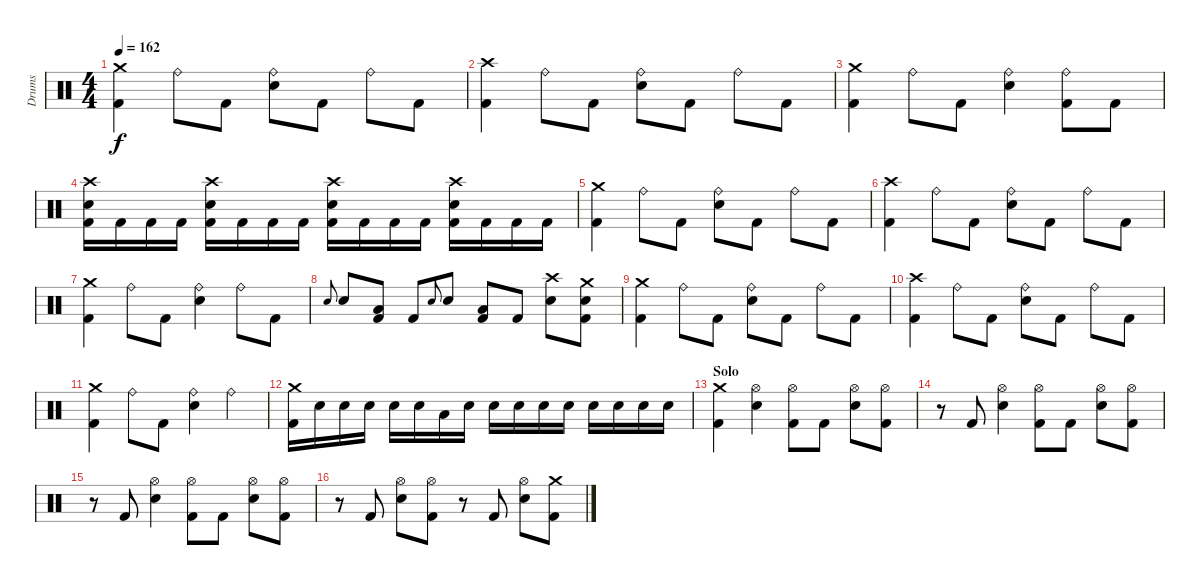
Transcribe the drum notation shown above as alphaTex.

\track ("Drums" "Drums") {instrument percussion}
\staff {score}
\articulation defaults
\ts (4 4)
\tempo 162
\clef neutral
\ks c
("Crash medium (hit)" "Kick (hit) 2").4{dy f} "Ride (bell)".8 "Kick (hit) 2".8 ("Ride (bell)" "Snare (hit) 2").8 "Kick (hit) 2".8 "Ride (bell)".8 "Kick (hit) 2".8 |
("Crash high (hit)" "Kick (hit) 2").4 "Ride (bell)".8 "Kick (hit) 2".8 ("Ride (bell)" "Snare (hit) 2").8 "Kick (hit) 2".8 "Ride (bell)".8 "Kick (hit) 2".8 |
("Crash medium (hit)" "Kick (hit) 2").4 "Ride (bell)".8 "Kick (hit) 2".8 ("Ride (bell)" "Snare (hit) 2").4 ("Ride (bell)" "Kick (hit) 2").8 "Kick (hit) 2".8 |
("Crash high (hit)" "Snare (hit) 2" "Kick (hit) 2").16 "Kick (hit) 2".16 "Kick (hit) 2".16 "Kick (hit) 2".16 ("Crash high (hit)" "Snare (hit) 2" "Kick (hit) 2").16 "Kick (hit) 2".16 "Kick (hit) 2".16 "Kick (hit) 2".16 ("Crash high (hit)" "Snare (hit) 2" "Kick (hit) 2").16 "Kick (hit) 2".16 "Kick (hit) 2".16 "Kick (hit) 2".16 ("Crash high (hit)" "Snare (hit) 2" "Kick (hit) 2").16 "Kick (hit) 2".16 "Kick (hit) 2".16 "Kick (hit) 2".16 |
("Crash medium (hit)" "Kick (hit) 2").4 "Ride (bell)".8 "Kick (hit) 2".8 ("Ride (bell)" "Snare (hit) 2").8 "Kick (hit) 2".8 "Ride (bell)".8 "Kick (hit) 2".8 |
("Crash high (hit)" "Kick (hit) 2").4 "Ride (bell)".8 "Kick (hit) 2".8 ("Ride (bell)" "Snare (hit) 2").8 "Kick (hit) 2".8 "Ride (bell)".8 "Kick (hit) 2".8 |
("Crash medium (hit)" "Kick (hit) 2").4 "Ride (bell)".8 "Kick (hit) 2".8 ("Ride (bell)" "Snare (hit) 2").4 "Ride (bell)".8 "Kick (hit) 2".8 |
"Snare (hit) 2".8{gr onbeat} "Snare (hit) 2".8 ("Low Floor Tom (hit)" "Kick (hit) 2").8 "Kick (hit) 2".8 "Snare (hit) 2".8{gr onbeat} "Snare (hit) 2".8 ("Low Floor Tom (hit)" "Kick (hit) 2").8 "Kick (hit) 2".8 ("Crash high (hit)" "Snare (hit) 2").8 ("Crash medium (hit)" "Snare (hit) 2" "Kick (hit) 2").8 |
("Crash medium (hit)" "Kick (hit) 2").4 "Ride (bell)".8 "Kick (hit) 2".8 ("Ride (bell)" "Snare (hit) 2").8 "Kick (hit) 2".8 "Ride (bell)".8 "Kick (hit) 2".8 |
("Crash high (hit)" "Kick (hit) 2").4 "Ride (bell)".8 "Kick (hit) 2".8 ("Ride (bell)" "Snare (hit) 2").8 "Kick (hit) 2".8 "Ride (bell)".8 "Kick (hit) 2".8 |
("Crash medium (hit)" "Kick (hit) 2").4 "Ride (bell)".8 "Kick (hit) 2".8 ("Ride (bell)" "Snare (hit) 2").4 "Ride (bell)".4 |
("Crash medium (hit)" "Kick (hit) 2").16 "Snare (hit) 2".16 "Snare (hit) 2".16 "Snare (hit) 2".16 "Snare (hit) 2".16 "Snare (hit) 2".16 "Low Tom (hit)".16 "Snare (hit) 2".16 "Snare (hit) 2".16 "Snare (hit) 2".16 "Snare (hit) 2".16 "Snare (hit) 2".16 "Snare (hit) 2".16 "Snare (hit) 2".16 "Snare (hit) 2".16 "Snare (hit) 2".16 |
\section ("" "Solo")
("Crash medium (hit)" "Kick (hit) 2").4 ("Hi-Hat (open)" "Snare (hit) 2").4 ("Hi-Hat (open)" "Kick (hit) 2").8 "Kick (hit) 2".8 ("Hi-Hat (open)" "Snare (hit) 2").8 ("Hi-Hat (open)" "Kick (hit) 2").8 |
r.8 "Kick (hit) 2".8 ("Hi-Hat (open)" "Snare (hit) 2").4 ("Hi-Hat (open)" "Kick (hit) 2").8 "Kick (hit) 2".8 ("Hi-Hat (open)" "Snare (hit) 2").8 ("Hi-Hat (open)" "Kick (hit) 2").8 |
r.8 "Kick (hit) 2".8 ("Hi-Hat (open)" "Snare (hit) 2").4 ("Hi-Hat (open)" "Kick (hit) 2").8 "Kick (hit) 2".8 ("Hi-Hat (open)" "Snare (hit) 2").8 ("Hi-Hat (open)" "Kick (hit) 2").8 |
r.8 "Kick (hit) 2".8 ("Hi-Hat (open)" "Snare (hit) 2").8 ("Hi-Hat (open)" "Kick (hit) 2").8 r.8 "Kick (hit) 2".8 ("Hi-Hat (open)" "Snare (hit) 2").8 ("Crash medium (hit)" "Kick (hit) 2").8
